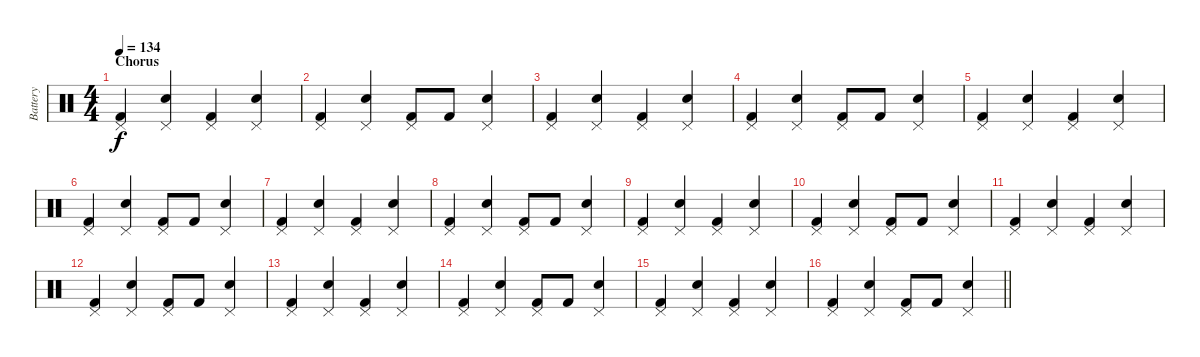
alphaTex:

\track ("Battery" "Battery") {instrument percussion}
\staff {score}
\articulation defaults
\ts (4 4)
\section ("" "Chorus")
\tempo 134
\clef neutral
\ks c
("Pedal Hi-Hat (hit)" "Kick (hit) 2").4{dy f} ("Pedal Hi-Hat (hit)" "Snare (hit) 2").4 ("Pedal Hi-Hat (hit)" "Kick (hit) 2").4 ("Pedal Hi-Hat (hit)" "Snare (hit) 2").4 |
("Pedal Hi-Hat (hit)" "Kick (hit) 2").4 ("Pedal Hi-Hat (hit)" "Snare (hit) 2").4 ("Pedal Hi-Hat (hit)" "Kick (hit) 2").8 "Kick (hit) 2".8 ("Pedal Hi-Hat (hit)" "Snare (hit) 2").4 |
("Pedal Hi-Hat (hit)" "Kick (hit) 2").4 ("Pedal Hi-Hat (hit)" "Snare (hit) 2").4 ("Pedal Hi-Hat (hit)" "Kick (hit) 2").4 ("Pedal Hi-Hat (hit)" "Snare (hit) 2").4 |
("Pedal Hi-Hat (hit)" "Kick (hit) 2").4 ("Pedal Hi-Hat (hit)" "Snare (hit) 2").4 ("Pedal Hi-Hat (hit)" "Kick (hit) 2").8 "Kick (hit) 2".8 ("Pedal Hi-Hat (hit)" "Snare (hit) 2").4 |
("Pedal Hi-Hat (hit)" "Kick (hit) 2").4 ("Pedal Hi-Hat (hit)" "Snare (hit) 2").4 ("Pedal Hi-Hat (hit)" "Kick (hit) 2").4 ("Pedal Hi-Hat (hit)" "Snare (hit) 2").4 |
("Pedal Hi-Hat (hit)" "Kick (hit) 2").4 ("Pedal Hi-Hat (hit)" "Snare (hit) 2").4 ("Pedal Hi-Hat (hit)" "Kick (hit) 2").8 "Kick (hit) 2".8 ("Pedal Hi-Hat (hit)" "Snare (hit) 2").4 |
("Pedal Hi-Hat (hit)" "Kick (hit) 2").4 ("Pedal Hi-Hat (hit)" "Snare (hit) 2").4 ("Pedal Hi-Hat (hit)" "Kick (hit) 2").4 ("Pedal Hi-Hat (hit)" "Snare (hit) 2").4 |
("Pedal Hi-Hat (hit)" "Kick (hit) 2").4 ("Pedal Hi-Hat (hit)" "Snare (hit) 2").4 ("Pedal Hi-Hat (hit)" "Kick (hit) 2").8 "Kick (hit) 2".8 ("Pedal Hi-Hat (hit)" "Snare (hit) 2").4 |
("Pedal Hi-Hat (hit)" "Kick (hit) 2").4 ("Pedal Hi-Hat (hit)" "Snare (hit) 2").4 ("Pedal Hi-Hat (hit)" "Kick (hit) 2").4 ("Pedal Hi-Hat (hit)" "Snare (hit) 2").4 |
("Pedal Hi-Hat (hit)" "Kick (hit) 2").4 ("Pedal Hi-Hat (hit)" "Snare (hit) 2").4 ("Pedal Hi-Hat (hit)" "Kick (hit) 2").8 "Kick (hit) 2".8 ("Pedal Hi-Hat (hit)" "Snare (hit) 2").4 |
("Pedal Hi-Hat (hit)" "Kick (hit) 2").4 ("Pedal Hi-Hat (hit)" "Snare (hit) 2").4 ("Pedal Hi-Hat (hit)" "Kick (hit) 2").4 ("Pedal Hi-Hat (hit)" "Snare (hit) 2").4 |
("Pedal Hi-Hat (hit)" "Kick (hit) 2").4 ("Pedal Hi-Hat (hit)" "Snare (hit) 2").4 ("Pedal Hi-Hat (hit)" "Kick (hit) 2").8 "Kick (hit) 2".8 ("Pedal Hi-Hat (hit)" "Snare (hit) 2").4 |
("Pedal Hi-Hat (hit)" "Kick (hit) 2").4 ("Pedal Hi-Hat (hit)" "Snare (hit) 2").4 ("Pedal Hi-Hat (hit)" "Kick (hit) 2").4 ("Pedal Hi-Hat (hit)" "Snare (hit) 2").4 |
("Pedal Hi-Hat (hit)" "Kick (hit) 2").4 ("Pedal Hi-Hat (hit)" "Snare (hit) 2").4 ("Pedal Hi-Hat (hit)" "Kick (hit) 2").8 "Kick (hit) 2".8 ("Pedal Hi-Hat (hit)" "Snare (hit) 2").4 |
("Pedal Hi-Hat (hit)" "Kick (hit) 2").4 ("Pedal Hi-Hat (hit)" "Snare (hit) 2").4 ("Pedal Hi-Hat (hit)" "Kick (hit) 2").4 ("Pedal Hi-Hat (hit)" "Snare (hit) 2").4 |
\barLineRight lightlight
("Pedal Hi-Hat (hit)" "Kick (hit) 2").4 ("Pedal Hi-Hat (hit)" "Snare (hit) 2").4 ("Pedal Hi-Hat (hit)" "Kick (hit) 2").8 "Kick (hit) 2".8 ("Pedal Hi-Hat (hit)" "Snare (hit) 2").4
